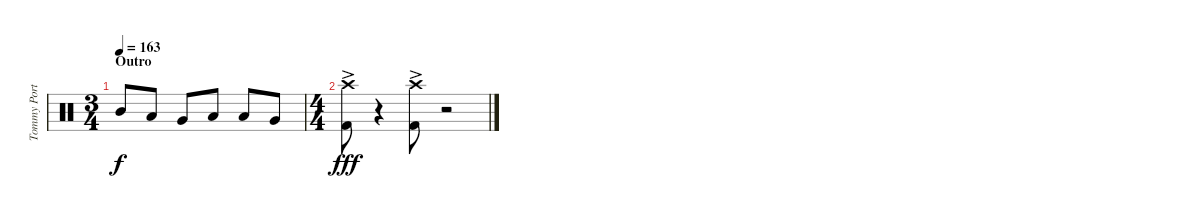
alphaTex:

\track ("Tommy Portimo" "Tommy Port") {instrument percussion}
\staff {score}
\articulation defaults
\ts (3 4)
\section ("" "Outro")
\tempo 163
\clef neutral
\ks c "Mid Tom (hit)".8{dy f} "Low Tom (hit)".8 "Very Low Tom (hit)".8 "Low Floor Tom (hit)".8 "Low Tom (hit)".8 "Very Low Tom (hit)".8
|
\ts (4 4)
("Crash high (hit)"{ac} "Kick (hit) 2").8{dy fff} r.4 ("Crash high (hit)"{ac} "Kick (hit) 2").8 r.2
